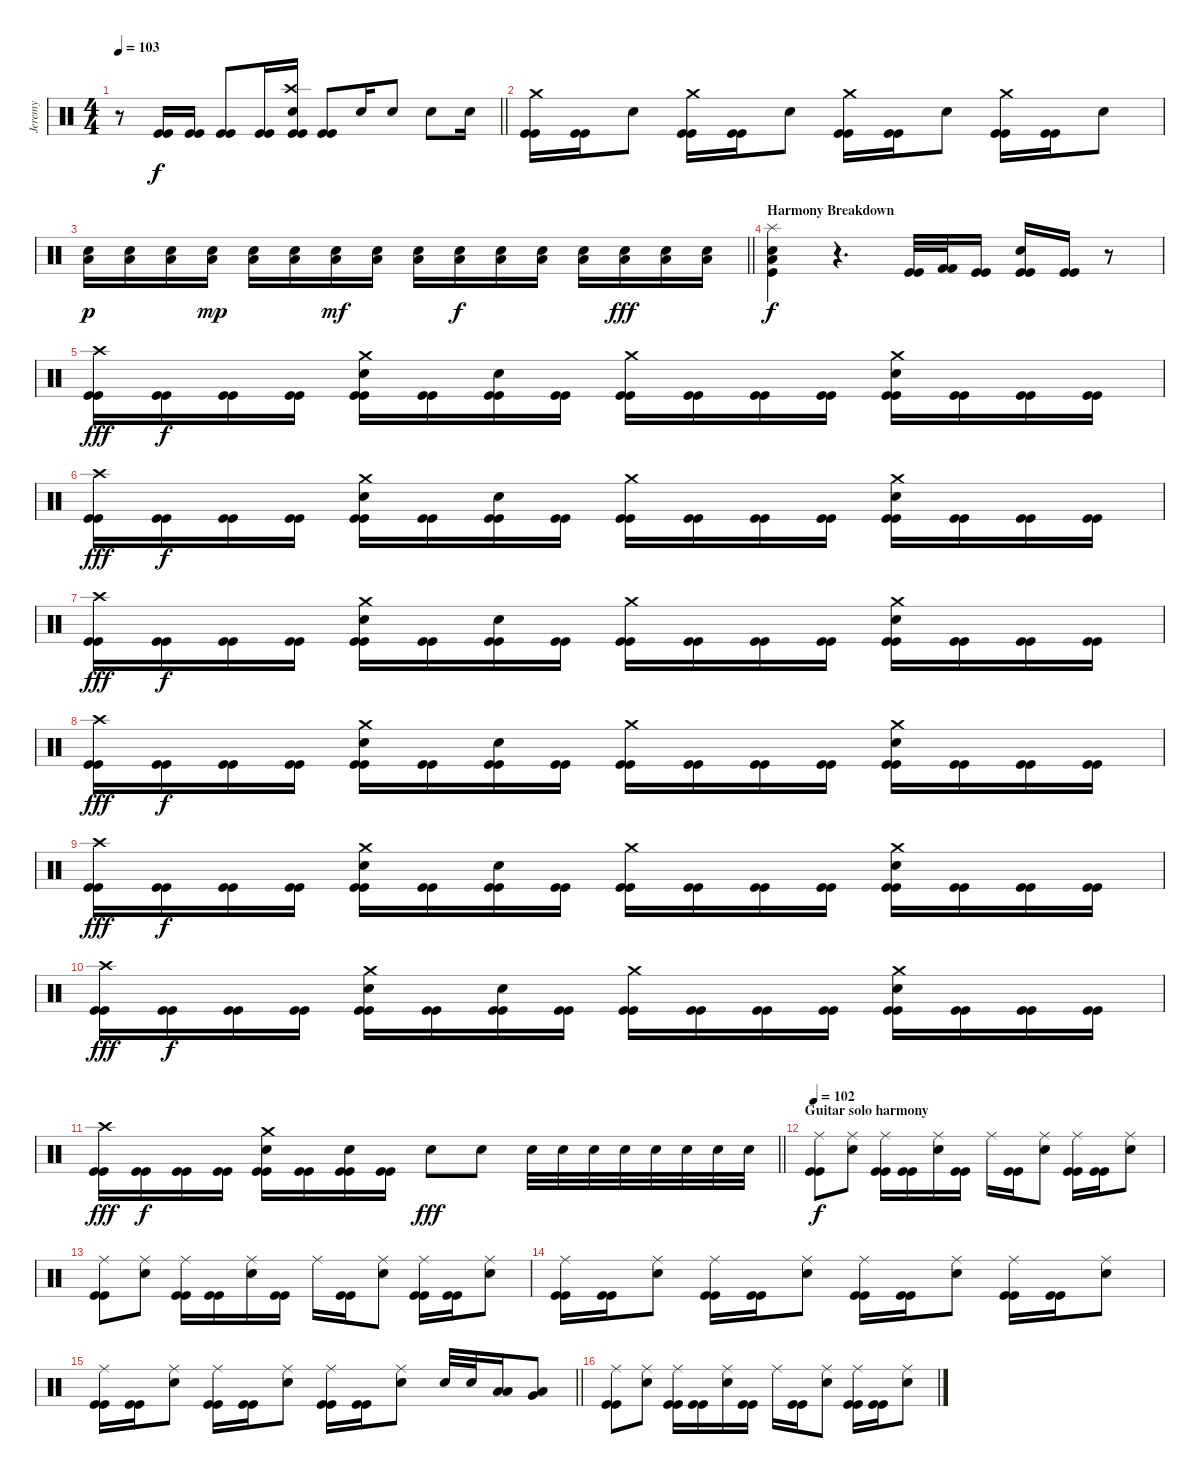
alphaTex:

\track ("Jeremy" "Jeremy") {instrument percussion}
\staff {score}
\articulation defaults
\ts (4 4)
\tempo 103
\clef neutral
\barLineRight lightlight
\ks c
r.8{dy f} ("Kick (hit)" "Kick (hit)").16 ("Kick (hit)" "Kick (hit)").16 ("Kick (hit)" "Kick (hit)").8 ("Kick (hit)" "Kick (hit)").16 ("Crash high (hit)" "Electric Snare (hit)" "Kick (hit)" "Kick (hit)").16 ("Kick (hit)" "Kick (hit)").8 "Electric Snare (hit)".16 "Electric Snare (hit)".8 "Electric Snare (hit)".8 "Electric Snare (hit)".16 |
("Crash medium (hit)" "Kick (hit)" "Kick (hit)").16 ("Kick (hit)" "Kick (hit)").16 "Electric Snare (hit)".8 ("Crash medium (hit)" "Kick (hit)" "Kick (hit)").16 ("Kick (hit)" "Kick (hit)").16 "Electric Snare (hit)".8 ("Crash medium (hit)" "Kick (hit)" "Kick (hit)").16 ("Kick (hit)" "Kick (hit)").16 "Electric Snare (hit)".8 ("Crash medium (hit)" "Kick (hit)" "Kick (hit)").16 ("Kick (hit)" "Kick (hit)").16 "Electric Snare (hit)".8 |
\barLineRight lightlight
("Electric Snare (hit)" "Low Tom (hit)").16{dy p} ("Electric Snare (hit)" "Low Tom (hit)").16 ("Electric Snare (hit)" "Low Tom (hit)").16 ("Electric Snare (hit)" "Low Tom (hit)").16{dy mp} ("Electric Snare (hit)" "Low Tom (hit)").16 ("Electric Snare (hit)" "Low Tom (hit)").16 ("Electric Snare (hit)" "Low Tom (hit)").16{dy mf} ("Electric Snare (hit)" "Low Tom (hit)").16 ("Electric Snare (hit)" "Low Tom (hit)").16 ("Electric Snare (hit)" "Low Tom (hit)").16{dy f} ("Electric Snare (hit)" "Low Tom (hit)").16 ("Electric Snare (hit)" "Low Tom (hit)").16 ("Electric Snare (hit)" "Low Tom (hit)").16 ("Electric Snare (hit)" "Low Tom (hit)").16{dy fff} ("Electric Snare (hit)" "Low Tom (hit)").16 ("Low Tom (hit)" "Electric Snare (hit)").16 |
\section ("" "Harmony Breakdown")
("Splash (hit)" "Electric Snare (hit)" "Low Tom (hit)" "Kick (hit)").4{dy f} r.4{d} ("Kick (hit)" "Kick (hit)").32 ("Kick (hit) 2" "Kick (hit) 2").32 ("Kick (hit)" "Kick (hit)").16 ("Electric Snare (hit)" "Kick (hit)" "Kick (hit)").16 ("Kick (hit)" "Kick (hit)").16 r.8 |
("Crash high (hit)" "Kick (hit)" "Kick (hit)").16{dy fff} ("Kick (hit)" "Kick (hit)").16{dy f} ("Kick (hit)" "Kick (hit)").16 ("Kick (hit)" "Kick (hit)").16 ("Crash medium (hit)" "Electric Snare (hit)" "Kick (hit)" "Kick (hit)").16 ("Kick (hit)" "Kick (hit)").16 ("Electric Snare (hit)" "Kick (hit)" "Kick (hit)").16 ("Kick (hit)" "Kick (hit)").16 ("Crash medium (hit)" "Kick (hit)" "Kick (hit)").16 ("Kick (hit)" "Kick (hit)").16 ("Kick (hit)" "Kick (hit)").16 ("Kick (hit)" "Kick (hit)").16 ("Crash medium (hit)" "Electric Snare (hit)" "Kick (hit)" "Kick (hit)").16 ("Kick (hit)" "Kick (hit)").16 ("Kick (hit)" "Kick (hit)").16 ("Kick (hit)" "Kick (hit)").16 |
("Crash high (hit)" "Kick (hit)" "Kick (hit)").16{dy fff} ("Kick (hit)" "Kick (hit)").16{dy f} ("Kick (hit)" "Kick (hit)").16 ("Kick (hit)" "Kick (hit)").16 ("Crash medium (hit)" "Electric Snare (hit)" "Kick (hit)" "Kick (hit)").16 ("Kick (hit)" "Kick (hit)").16 ("Electric Snare (hit)" "Kick (hit)" "Kick (hit)").16 ("Kick (hit)" "Kick (hit)").16 ("Crash medium (hit)" "Kick (hit)" "Kick (hit)").16 ("Kick (hit)" "Kick (hit)").16 ("Kick (hit)" "Kick (hit)").16 ("Kick (hit)" "Kick (hit)").16 ("Crash medium (hit)" "Electric Snare (hit)" "Kick (hit)" "Kick (hit)").16 ("Kick (hit)" "Kick (hit)").16 ("Kick (hit)" "Kick (hit)").16 ("Kick (hit)" "Kick (hit)").16 |
("Crash high (hit)" "Kick (hit)" "Kick (hit)").16{dy fff} ("Kick (hit)" "Kick (hit)").16{dy f} ("Kick (hit)" "Kick (hit)").16 ("Kick (hit)" "Kick (hit)").16 ("Crash medium (hit)" "Electric Snare (hit)" "Kick (hit)" "Kick (hit)").16 ("Kick (hit)" "Kick (hit)").16 ("Electric Snare (hit)" "Kick (hit)" "Kick (hit)").16 ("Kick (hit)" "Kick (hit)").16 ("Crash medium (hit)" "Kick (hit)" "Kick (hit)").16 ("Kick (hit)" "Kick (hit)").16 ("Kick (hit)" "Kick (hit)").16 ("Kick (hit)" "Kick (hit)").16 ("Crash medium (hit)" "Electric Snare (hit)" "Kick (hit)" "Kick (hit)").16 ("Kick (hit)" "Kick (hit)").16 ("Kick (hit)" "Kick (hit)").16 ("Kick (hit)" "Kick (hit)").16 |
("Crash high (hit)" "Kick (hit)" "Kick (hit)").16{dy fff} ("Kick (hit)" "Kick (hit)").16{dy f} ("Kick (hit)" "Kick (hit)").16 ("Kick (hit)" "Kick (hit)").16 ("Crash medium (hit)" "Electric Snare (hit)" "Kick (hit)" "Kick (hit)").16 ("Kick (hit)" "Kick (hit)").16 ("Electric Snare (hit)" "Kick (hit)" "Kick (hit)").16 ("Kick (hit)" "Kick (hit)").16 ("Crash medium (hit)" "Kick (hit)" "Kick (hit)").16 ("Kick (hit)" "Kick (hit)").16 ("Kick (hit)" "Kick (hit)").16 ("Kick (hit)" "Kick (hit)").16 ("Crash medium (hit)" "Electric Snare (hit)" "Kick (hit)" "Kick (hit)").16 ("Kick (hit)" "Kick (hit)").16 ("Kick (hit)" "Kick (hit)").16 ("Kick (hit)" "Kick (hit)").16 |
("Crash high (hit)" "Kick (hit)" "Kick (hit)").16{dy fff} ("Kick (hit)" "Kick (hit)").16{dy f} ("Kick (hit)" "Kick (hit)").16 ("Kick (hit)" "Kick (hit)").16 ("Crash medium (hit)" "Electric Snare (hit)" "Kick (hit)" "Kick (hit)").16 ("Kick (hit)" "Kick (hit)").16 ("Electric Snare (hit)" "Kick (hit)" "Kick (hit)").16 ("Kick (hit)" "Kick (hit)").16 ("Crash medium (hit)" "Kick (hit)" "Kick (hit)").16 ("Kick (hit)" "Kick (hit)").16 ("Kick (hit)" "Kick (hit)").16 ("Kick (hit)" "Kick (hit)").16 ("Crash medium (hit)" "Electric Snare (hit)" "Kick (hit)" "Kick (hit)").16 ("Kick (hit)" "Kick (hit)").16 ("Kick (hit)" "Kick (hit)").16 ("Kick (hit)" "Kick (hit)").16 |
("Crash high (hit)" "Kick (hit)" "Kick (hit)").16{dy fff} ("Kick (hit)" "Kick (hit)").16{dy f} ("Kick (hit)" "Kick (hit)").16 ("Kick (hit)" "Kick (hit)").16 ("Crash medium (hit)" "Electric Snare (hit)" "Kick (hit)" "Kick (hit)").16 ("Kick (hit)" "Kick (hit)").16 ("Electric Snare (hit)" "Kick (hit)" "Kick (hit)").16 ("Kick (hit)" "Kick (hit)").16 ("Crash medium (hit)" "Kick (hit)" "Kick (hit)").16 ("Kick (hit)" "Kick (hit)").16 ("Kick (hit)" "Kick (hit)").16 ("Kick (hit)" "Kick (hit)").16 ("Crash medium (hit)" "Electric Snare (hit)" "Kick (hit)" "Kick (hit)").16 ("Kick (hit)" "Kick (hit)").16 ("Kick (hit)" "Kick (hit)").16 ("Kick (hit)" "Kick (hit)").16 |
\barLineRight lightlight
("Crash high (hit)" "Kick (hit)" "Kick (hit)").16{dy fff} ("Kick (hit)" "Kick (hit)").16{dy f} ("Kick (hit)" "Kick (hit)").16 ("Kick (hit)" "Kick (hit)").16 ("Crash medium (hit)" "Electric Snare (hit)" "Kick (hit)" "Kick (hit)").16 ("Kick (hit)" "Kick (hit)").16 ("Electric Snare (hit)" "Kick (hit)" "Kick (hit)").16 ("Kick (hit)" "Kick (hit)").16 "Electric Snare (hit)".8{dy fff} "Electric Snare (hit)".8 "Electric Snare (hit)".32 "Electric Snare (hit)".32 "Electric Snare (hit)".32 "Electric Snare (hit)".32 "Electric Snare (hit)".32 "Electric Snare (hit)".32 "Electric Snare (hit)".32 "Electric Snare (hit)".32 |
\section ("" "Guitar solo harmony")
\tempo 102
("Ride (middle)" "Kick (hit)" "Kick (hit)").8{dy f} ("Ride (middle)" "Electric Snare (hit)").8 ("Ride (middle)" "Kick (hit)" "Kick (hit)").16 ("Kick (hit)" "Kick (hit)").16 ("Ride (middle)" "Electric Snare (hit)").16 ("Kick (hit)" "Kick (hit)").16 "Ride (middle)".16 ("Kick (hit)" "Kick (hit)").16 ("Ride (middle)" "Electric Snare (hit)").8 ("Ride (middle)" "Kick (hit)" "Kick (hit)").16 ("Kick (hit)" "Kick (hit)").16 ("Ride (middle)" "Electric Snare (hit)").8 |
("Ride (middle)" "Kick (hit)" "Kick (hit)").8 ("Ride (middle)" "Electric Snare (hit)").8 ("Ride (middle)" "Kick (hit)" "Kick (hit)").16 ("Kick (hit)" "Kick (hit)").16 ("Ride (middle)" "Electric Snare (hit)").16 ("Kick (hit)" "Kick (hit)").16 "Ride (middle)".16 ("Kick (hit)" "Kick (hit)").16 ("Ride (middle)" "Electric Snare (hit)").8 ("Ride (middle)" "Kick (hit)" "Kick (hit)").16 ("Kick (hit)" "Kick (hit)").16 ("Ride (middle)" "Electric Snare (hit)").8 |
("Ride (middle)" "Kick (hit)" "Kick (hit)").16 ("Kick (hit)" "Kick (hit)").16 ("Ride (middle)" "Electric Snare (hit)").8 ("Ride (middle)" "Kick (hit)" "Kick (hit)").16 ("Kick (hit)" "Kick (hit)").16 ("Ride (middle)" "Electric Snare (hit)").8 ("Ride (middle)" "Kick (hit)" "Kick (hit)").16 ("Kick (hit)" "Kick (hit)").16 ("Ride (middle)" "Electric Snare (hit)").8 ("Ride (middle)" "Kick (hit)" "Kick (hit)").16 ("Kick (hit)" "Kick (hit)").16 ("Ride (middle)" "Electric Snare (hit)").8 |
\barLineRight lightlight
("Ride (middle)" "Kick (hit)" "Kick (hit)").16 ("Kick (hit)" "Kick (hit)").16 ("Ride (middle)" "Electric Snare (hit)").8 ("Ride (middle)" "Kick (hit)" "Kick (hit)").16 ("Kick (hit)" "Kick (hit)").16 ("Ride (middle)" "Electric Snare (hit)").8 ("Ride (middle)" "Kick (hit)" "Kick (hit)").16 ("Kick (hit)" "Kick (hit)").16 ("Ride (middle)" "Electric Snare (hit)").8 "Electric Snare (hit)".32 "Electric Snare (hit)".32 ("Low Tom (hit)" "Low Tom (hit)").16 ("Low Tom (hit)" "Very Low Tom (hit)").8 |
("Ride (middle)" "Kick (hit)" "Kick (hit)").8 ("Ride (middle)" "Electric Snare (hit)").8 ("Ride (middle)" "Kick (hit)" "Kick (hit)").16 ("Kick (hit)" "Kick (hit)").16 ("Ride (middle)" "Electric Snare (hit)").16 ("Kick (hit)" "Kick (hit)").16 "Ride (middle)".16 ("Kick (hit)" "Kick (hit)").16 ("Ride (middle)" "Electric Snare (hit)").8 ("Ride (middle)" "Kick (hit)" "Kick (hit)").16 ("Kick (hit)" "Kick (hit)").16 ("Ride (middle)" "Electric Snare (hit)").8
